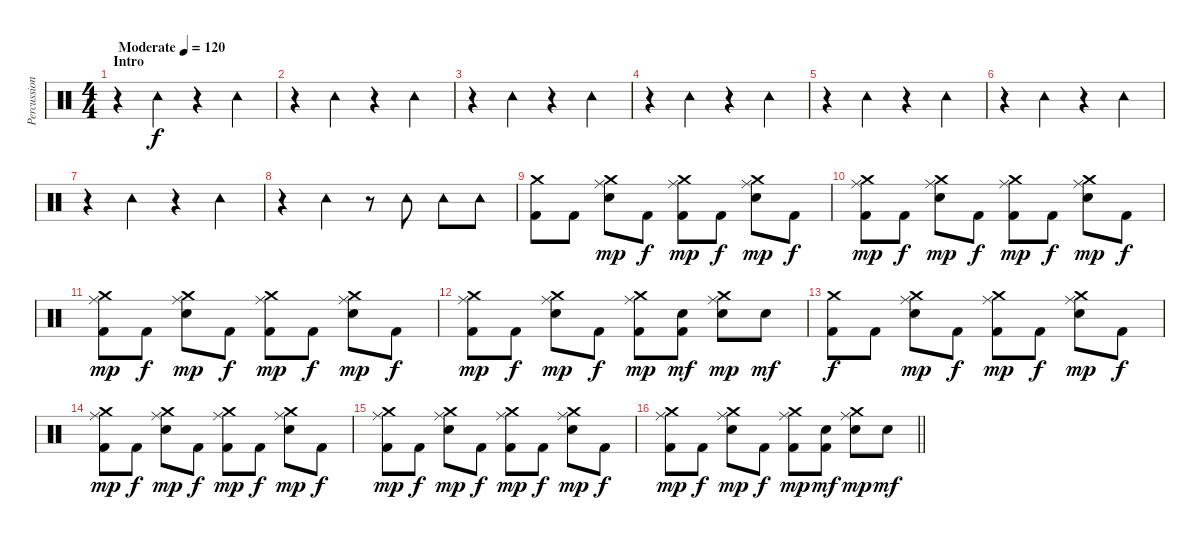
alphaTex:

\track ("Percussion" "Percussion") {instrument percussion}
\staff {score}
\articulation defaults
\ts (4 4)
\section ("" "Intro")
\tempo (120 "Moderate")
\clef neutral
\ks c
r.4{dy f} "Tambourine (hit)".4 r.4 "Tambourine (hit)".4 |
r.4 "Tambourine (hit)".4 r.4 "Tambourine (hit)".4 |
r.4 "Tambourine (hit)".4 r.4 "Tambourine (hit)".4 |
r.4 "Tambourine (hit)".4 r.4 "Tambourine (hit)".4 |
r.4 "Tambourine (hit)".4 r.4 "Tambourine (hit)".4 |
r.4 "Tambourine (hit)".4 r.4 "Tambourine (hit)".4 |
r.4 "Tambourine (hit)".4 r.4 "Tambourine (hit)".4 |
r.4 "Tambourine (hit)".4 r.8 "Tambourine (hit)".8 "Tambourine (hit)".8 "Tambourine (hit)".8 |
("Crash medium (hit)" "Kick (hit) 2").8 "Kick (hit) 2".8 ("Ride (middle)" "Crash medium (hit)" "Electric Snare (hit)").8{dy mp} "Kick (hit) 2".8{dy f} ("Ride (middle)" "Crash medium (hit)" "Kick (hit) 2").8{dy mp} "Kick (hit) 2".8{dy f} ("Ride (middle)" "Crash medium (hit)" "Electric Snare (hit)").8{dy mp} "Kick (hit) 2".8{dy f} |
("Ride (middle)" "Crash medium (hit)" "Kick (hit) 2").8{dy mp} "Kick (hit) 2".8{dy f} ("Ride (middle)" "Crash medium (hit)" "Electric Snare (hit)").8{dy mp} "Kick (hit) 2".8{dy f} ("Ride (middle)" "Crash medium (hit)" "Kick (hit) 2").8{dy mp} "Kick (hit) 2".8{dy f} ("Ride (middle)" "Crash medium (hit)" "Electric Snare (hit)").8{dy mp} "Kick (hit) 2".8{dy f} |
("Ride (middle)" "Crash medium (hit)" "Kick (hit) 2").8{dy mp} "Kick (hit) 2".8{dy f} ("Ride (middle)" "Crash medium (hit)" "Electric Snare (hit)").8{dy mp} "Kick (hit) 2".8{dy f} ("Ride (middle)" "Crash medium (hit)" "Kick (hit) 2").8{dy mp} "Kick (hit) 2".8{dy f} ("Ride (middle)" "Crash medium (hit)" "Electric Snare (hit)").8{dy mp} "Kick (hit) 2".8{dy f} |
("Ride (middle)" "Crash medium (hit)" "Kick (hit) 2").8{dy mp} "Kick (hit) 2".8{dy f} ("Ride (middle)" "Crash medium (hit)" "Electric Snare (hit)").8{dy mp} "Kick (hit) 2".8{dy f} ("Ride (middle)" "Crash medium (hit)" "Kick (hit) 2").8{dy mp} ("Electric Snare (hit)" "Kick (hit) 2").8{dy mf} ("Ride (middle)" "Crash medium (hit)" "Electric Snare (hit)").8{dy mp} "Electric Snare (hit)".8{dy mf} |
("Crash medium (hit)" "Kick (hit) 2").8{dy f} "Kick (hit) 2".8 ("Ride (middle)" "Crash medium (hit)" "Electric Snare (hit)").8{dy mp} "Kick (hit) 2".8{dy f} ("Ride (middle)" "Crash medium (hit)" "Kick (hit) 2").8{dy mp} "Kick (hit) 2".8{dy f} ("Ride (middle)" "Crash medium (hit)" "Electric Snare (hit)").8{dy mp} "Kick (hit) 2".8{dy f} |
("Ride (middle)" "Crash medium (hit)" "Kick (hit) 2").8{dy mp} "Kick (hit) 2".8{dy f} ("Ride (middle)" "Crash medium (hit)" "Electric Snare (hit)").8{dy mp} "Kick (hit) 2".8{dy f} ("Ride (middle)" "Crash medium (hit)" "Kick (hit) 2").8{dy mp} "Kick (hit) 2".8{dy f} ("Ride (middle)" "Crash medium (hit)" "Electric Snare (hit)").8{dy mp} "Kick (hit) 2".8{dy f} |
("Ride (middle)" "Crash medium (hit)" "Kick (hit) 2").8{dy mp} "Kick (hit) 2".8{dy f} ("Ride (middle)" "Crash medium (hit)" "Electric Snare (hit)").8{dy mp} "Kick (hit) 2".8{dy f} ("Ride (middle)" "Crash medium (hit)" "Kick (hit) 2").8{dy mp} "Kick (hit) 2".8{dy f} ("Ride (middle)" "Crash medium (hit)" "Electric Snare (hit)").8{dy mp} "Kick (hit) 2".8{dy f} |
\barLineRight lightlight
("Ride (middle)" "Crash medium (hit)" "Kick (hit) 2").8{dy mp} "Kick (hit) 2".8{dy f} ("Ride (middle)" "Crash medium (hit)" "Electric Snare (hit)").8{dy mp} "Kick (hit) 2".8{dy f} ("Ride (middle)" "Crash medium (hit)" "Kick (hit) 2").8{dy mp} ("Electric Snare (hit)" "Kick (hit) 2").8{dy mf} ("Ride (middle)" "Crash medium (hit)" "Electric Snare (hit)").8{dy mp} "Electric Snare (hit)".8{dy mf}
